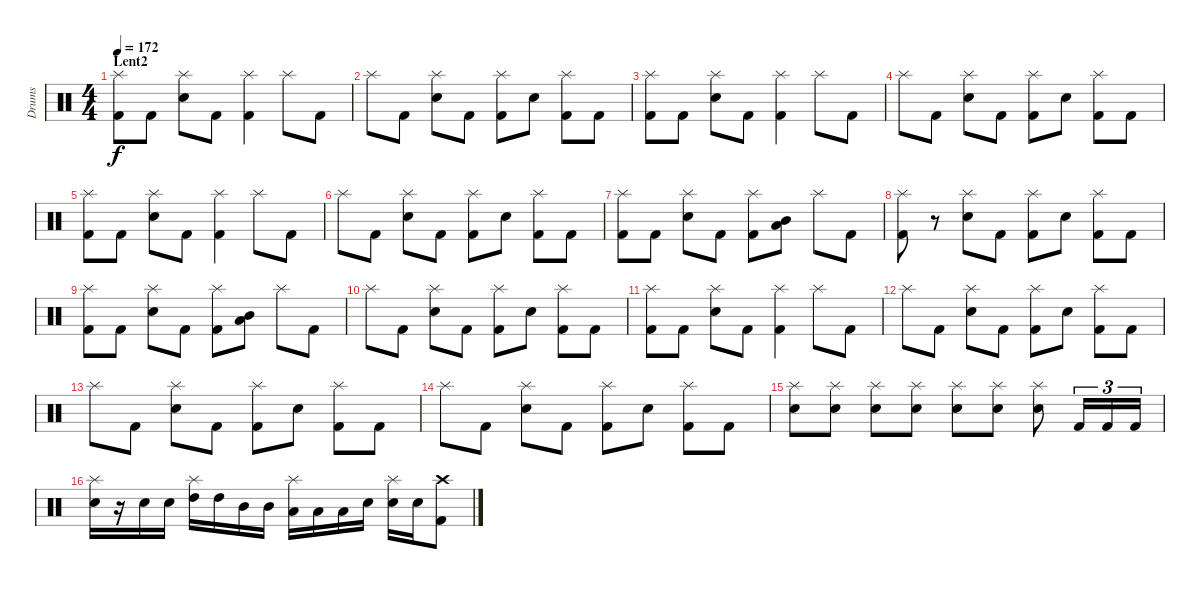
\track ("Drums" "Drums") {instrument percussion}
\staff {score}
\articulation defaults
\ts (4 4)
\section ("" "Lent2")
\tempo 172
\clef neutral
\ks c
("Splash (hit)" "Kick (hit) 2").8{dy f} "Kick (hit) 2".8 ("Splash (hit)" "Electric Snare (hit)").8 "Kick (hit) 2".8 ("Splash (hit)" "Kick (hit) 2").4 "Splash (hit)".8 "Kick (hit) 2".8 |
"Splash (hit)".8 "Kick (hit) 2".8 ("Splash (hit)" "Electric Snare (hit)").8 "Kick (hit) 2".8 ("Splash (hit)" "Kick (hit) 2").8 "Electric Snare (hit)".8 ("Splash (hit)" "Kick (hit) 2").8 "Kick (hit) 2".8 |
("Splash (hit)" "Kick (hit) 2").8 "Kick (hit) 2".8 ("Splash (hit)" "Electric Snare (hit)").8 "Kick (hit) 2".8 ("Splash (hit)" "Kick (hit) 2").4 "Splash (hit)".8 "Kick (hit) 2".8 |
"Splash (hit)".8 "Kick (hit) 2".8 ("Splash (hit)" "Electric Snare (hit)").8 "Kick (hit) 2".8 ("Splash (hit)" "Kick (hit) 2").8 "Electric Snare (hit)".8 ("Splash (hit)" "Kick (hit) 2").8 "Kick (hit) 2".8 |
("Splash (hit)" "Kick (hit) 2").8 "Kick (hit) 2".8 ("Splash (hit)" "Electric Snare (hit)").8 "Kick (hit) 2".8 ("Splash (hit)" "Kick (hit) 2").4 "Splash (hit)".8 "Kick (hit) 2".8 |
"Splash (hit)".8 "Kick (hit) 2".8 ("Splash (hit)" "Electric Snare (hit)").8 "Kick (hit) 2".8 ("Splash (hit)" "Kick (hit) 2").8 "Electric Snare (hit)".8 ("Splash (hit)" "Kick (hit) 2").8 "Kick (hit) 2".8 |
("Splash (hit)" "Kick (hit) 2").8 "Kick (hit) 2".8 ("Splash (hit)" "Electric Snare (hit)").8 "Kick (hit) 2".8 ("Splash (hit)" "Kick (hit) 2").8 ("Mid Tom (hit)" "Low Tom (hit)").8 "Splash (hit)".8 "Kick (hit) 2".8 |
("Splash (hit)" "Kick (hit) 2").8 r.8 ("Splash (hit)" "Electric Snare (hit)").8 "Kick (hit) 2".8 ("Splash (hit)" "Kick (hit) 2").8 "Electric Snare (hit)".8 ("Splash (hit)" "Kick (hit) 2").8 "Kick (hit) 2".8 |
("Splash (hit)" "Kick (hit) 2").8 "Kick (hit) 2".8 ("Splash (hit)" "Electric Snare (hit)").8 "Kick (hit) 2".8 ("Splash (hit)" "Kick (hit) 2").8 ("Mid Tom (hit)" "Low Tom (hit)").8 "Splash (hit)".8 "Kick (hit) 2".8 |
"Splash (hit)".8 "Kick (hit) 2".8 ("Splash (hit)" "Electric Snare (hit)").8 "Kick (hit) 2".8 ("Splash (hit)" "Kick (hit) 2").8 "Electric Snare (hit)".8 ("Splash (hit)" "Kick (hit) 2").8 "Kick (hit) 2".8 |
("Splash (hit)" "Kick (hit) 2").8 "Kick (hit) 2".8 ("Splash (hit)" "Electric Snare (hit)").8 "Kick (hit) 2".8 ("Splash (hit)" "Kick (hit) 2").4 "Splash (hit)".8 "Kick (hit) 2".8 |
"Splash (hit)".8 "Kick (hit) 2".8 ("Splash (hit)" "Electric Snare (hit)").8 "Kick (hit) 2".8 ("Splash (hit)" "Kick (hit) 2").8 "Electric Snare (hit)".8 ("Splash (hit)" "Kick (hit) 2").8 "Kick (hit) 2".8 |
"Splash (hit)".8 "Kick (hit) 2".8 ("Splash (hit)" "Electric Snare (hit)").8 "Kick (hit) 2".8 ("Splash (hit)" "Kick (hit) 2").8 "Electric Snare (hit)".8 ("Splash (hit)" "Kick (hit) 2").8 "Kick (hit) 2".8 |
"Splash (hit)".8 "Kick (hit) 2".8 ("Splash (hit)" "Electric Snare (hit)").8 "Kick (hit) 2".8 ("Splash (hit)" "Kick (hit) 2").8 "Electric Snare (hit)".8 ("Splash (hit)" "Kick (hit) 2").8 "Kick (hit) 2".8 |
("Splash (hit)" "Electric Snare (hit)").8 ("Splash (hit)" "Electric Snare (hit)").8 ("Splash (hit)" "Electric Snare (hit)").8 ("Splash (hit)" "Electric Snare (hit)").8 ("Splash (hit)" "Electric Snare (hit)").8 ("Splash (hit)" "Electric Snare (hit)").8 ("Splash (hit)" "Electric Snare (hit)").8 "Kick (hit) 2".16{tu (3 2)} "Kick (hit) 2".16{tu (3 2)} "Kick (hit) 2".16{tu (3 2)} |
("Splash (hit)" "Electric Snare (hit)").16 r.16 "Electric Snare (hit)".16 "Electric Snare (hit)".16 ("Splash (hit)" "High Tom (hit)").16 "High Tom (hit)".16 "Mid Tom (hit)".16 "Mid Tom (hit)".16 ("Splash (hit)" "Low Tom (hit)").16 "Low Tom (hit)".16 "Low Tom (hit)".16 "Electric Snare (hit)".16 ("Splash (hit)" "Electric Snare (hit)").16 "Electric Snare (hit)".16 ("Crash high (hit)" "Kick (hit) 2").8
